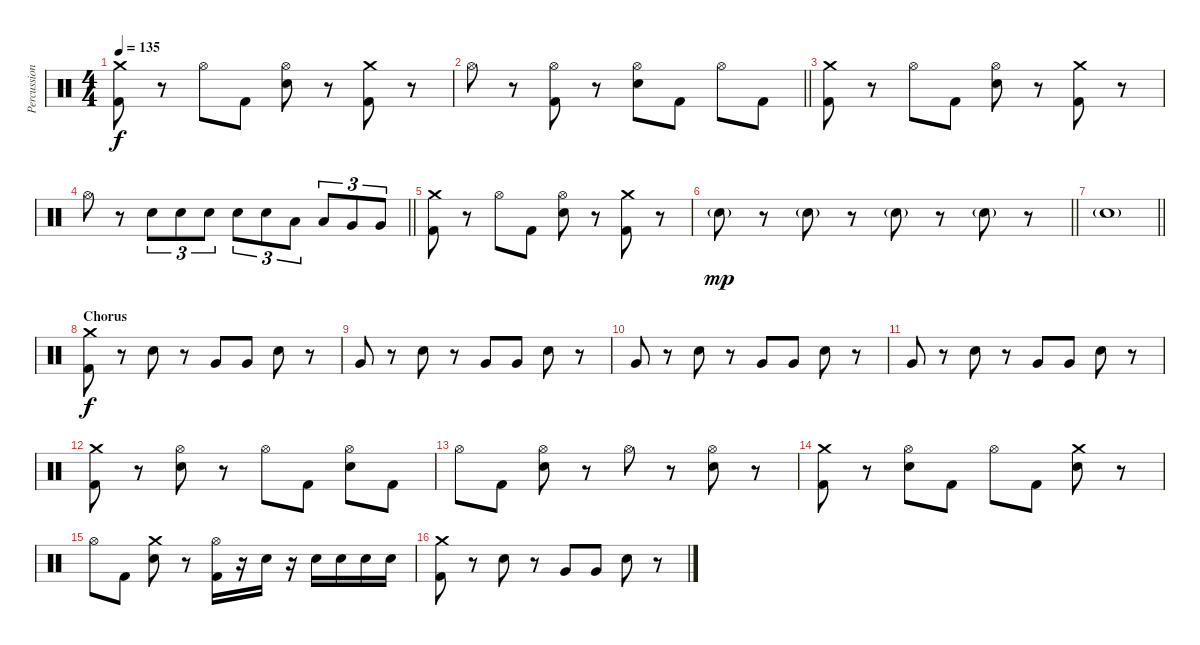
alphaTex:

\track ("Percussion" "Percussion") {instrument percussion}
\staff {score}
\articulation defaults
\ts (4 4)
\tempo 135
\clef neutral
\ks c
("Crash medium (hit)" "Kick (hit) 2").8{dy f} r.8 "Hi-Hat (open)".8 "Kick (hit) 2".8 ("Hi-Hat (open)" "Electric Snare (hit)").8 r.8 ("Kick (hit) 2" "Crash medium (hit)").8 r.8 |
\barLineRight lightlight "Hi-Hat (open)".8
r.8 ("Hi-Hat (open)" "Kick (hit) 2").8 r.8 ("Hi-Hat (open)" "Electric Snare (hit)").8 "Kick (hit) 2".8 "Hi-Hat (open)".8 "Kick (hit) 2".8 |
("Crash medium (hit)" "Kick (hit) 2").8 r.8 "Hi-Hat (open)".8 "Kick (hit) 2".8 ("Hi-Hat (open)" "Electric Snare (hit)").8 r.8 ("Kick (hit) 2" "Crash medium (hit)").8 r.8 |
\barLineRight lightlight "Hi-Hat (open)".8
r.8 "Electric Snare (hit)".8{tu (3 2)} "Electric Snare (hit)".8{tu (3 2)} "Electric Snare (hit)".8{tu (3 2)} "Electric Snare (hit)".8{tu (3 2)} "Electric Snare (hit)".8{tu (3 2)} "Low Tom (hit)".8{tu (3 2)} "Low Tom (hit)".8{tu (3 2)} "Very Low Tom (hit)".8{tu (3 2)} "Very Low Tom (hit)".8{tu (3 2)} |
("Crash medium (hit)" "Kick (hit) 2").8 r.8 "Hi-Hat (open)".8 "Kick (hit) 2".8 ("Hi-Hat (open)" "Electric Snare (hit)").8 r.8 ("Kick (hit) 2" "Crash medium (hit)").8 r.8 |
\barLineRight lightlight "Snare (hit)"{g}.8{dy mp}
r.8 "Snare (hit)"{g}.8 r.8 "Snare (hit)"{g}.8 r.8 "Snare (hit)"{g}.8 r.8 |
\barLineRight lightlight "Snare (hit)"{g}.1
|
\section ("" "Chorus")
("Crash medium (hit)" "Kick (hit) 2").8{dy f} r.8 "Electric Snare (hit)".8 r.8 "Very Low Tom (hit)".8 "Very Low Tom (hit)".8 "Electric Snare (hit)".8 r.8 |
"Very Low Tom (hit)".8 r.8 "Electric Snare (hit)".8 r.8 "Very Low Tom (hit)".8 "Very Low Tom (hit)".8 "Electric Snare (hit)".8 r.8 |
"Very Low Tom (hit)".8 r.8 "Electric Snare (hit)".8 r.8 "Very Low Tom (hit)".8 "Very Low Tom (hit)".8 "Electric Snare (hit)".8 r.8 |
"Very Low Tom (hit)".8 r.8 "Electric Snare (hit)".8 r.8 "Very Low Tom (hit)".8 "Very Low Tom (hit)".8 "Electric Snare (hit)".8 r.8 |
("Crash medium (hit)" "Kick (hit) 2").8 r.8 ("Hi-Hat (open)" "Electric Snare (hit)").8 r.8 "Hi-Hat (open)".8 "Kick (hit) 2".8 ("Hi-Hat (open)" "Electric Snare (hit)").8 "Kick (hit) 2".8 |
"Hi-Hat (open)".8 "Kick (hit) 2".8 ("Hi-Hat (open)" "Electric Snare (hit)").8 r.8 "Hi-Hat (open)".8 r.8 ("Hi-Hat (open)" "Electric Snare (hit)").8 r.8 |
("Crash medium (hit)" "Kick (hit) 2").8 r.8 ("Hi-Hat (open)" "Electric Snare (hit)").8 "Kick (hit) 2".8 "Hi-Hat (open)".8 "Kick (hit) 2".8 ("Crash medium (hit)" "Electric Snare (hit)").8 r.8 |
"Hi-Hat (open)".8 "Kick (hit) 2".8 ("Crash medium (hit)" "Electric Snare (hit)").8 r.8 ("Hi-Hat (open)" "Kick (hit) 2").16 r.16 "Electric Snare (hit)".16 r.16 "Electric Snare (hit)".16 "Electric Snare (hit)".16 "Electric Snare (hit)".16 "Electric Snare (hit)".16 |
("Crash medium (hit)" "Kick (hit) 2").8 r.8 "Electric Snare (hit)".8 r.8 "Very Low Tom (hit)".8 "Very Low Tom (hit)".8 "Electric Snare (hit)".8 r.8
